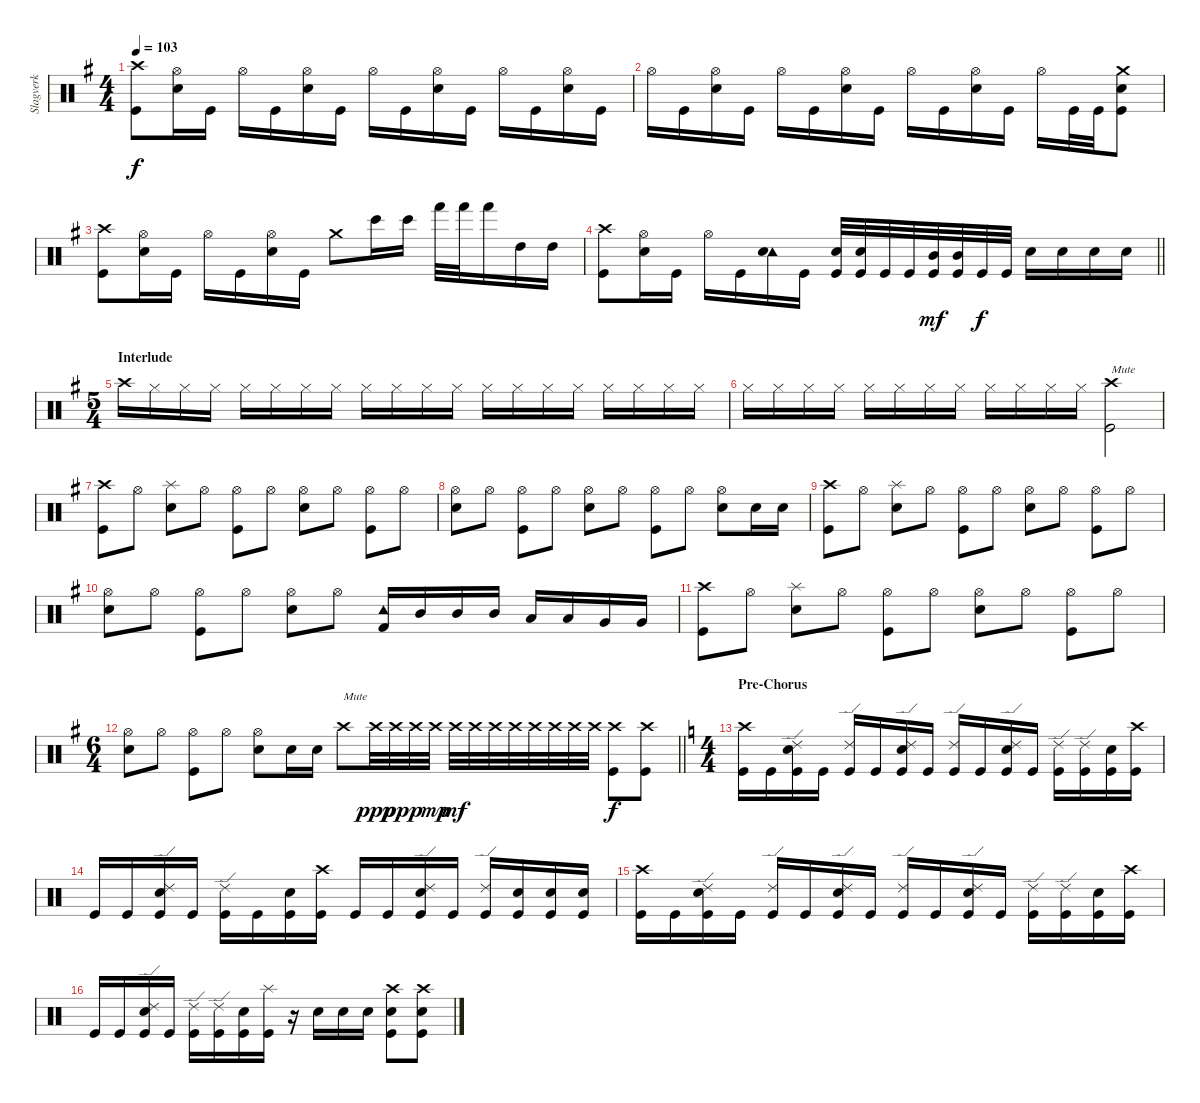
\track ("Slagverk" "Slagverk") {instrument percussion}
\staff {score}
\articulation defaults
\ts (4 4)
\tempo 103
\clef neutral
\ks g
("Crash high (hit)" "Kick (hit)").8{dy f} ("Hi-Hat (open)" "Electric Snare (hit)").16 "Kick (hit)".16 "Hi-Hat (open)".16 "Kick (hit)".16 ("Hi-Hat (open)" "Electric Snare (hit)").16 "Kick (hit)".16 "Hi-Hat (open)".16 "Kick (hit)".16 ("Hi-Hat (open)" "Electric Snare (hit)").16 "Kick (hit)".16 "Hi-Hat (open)".16 "Kick (hit)".16 ("Hi-Hat (open)" "Electric Snare (hit)").16 "Kick (hit)".16 |
"Hi-Hat (open)".16 "Kick (hit)".16 ("Hi-Hat (open)" "Electric Snare (hit)").16 "Kick (hit)".16 "Hi-Hat (open)".16 "Kick (hit)".16 ("Hi-Hat (open)" "Electric Snare (hit)").16 "Kick (hit)".16 "Hi-Hat (open)".16 "Kick (hit)".16 ("Hi-Hat (open)" "Electric Snare (hit)").16 "Kick (hit)".16 "Hi-Hat (open)".16 "Kick (hit)".32 "Kick (hit)".32 ("Crash medium (hit)" "Electric Snare (hit)" "Kick (hit)").8 |
("Crash high (hit)" "Kick (hit)").8 ("Hi-Hat (open)" "Electric Snare (hit)").16 "Kick (hit)".16 "Hi-Hat (open)".16 "Kick (hit)".16 ("Hi-Hat (open)" "Electric Snare (hit)").16 "Kick (hit)".16 "Crash medium (hit)".8 "Bongo High (hit)".16 "Bongo High (hit)".16 "Hand (hit)".32 "Hand (hit)".32 "Hand (hit)".16 "High Tom (hit)".16 "High Tom (hit)".16 |
\barLineRight lightlight
("Crash high (hit)" "Kick (hit)").8 ("Hi-Hat (open)" "Electric Snare (hit)").16 "Kick (hit)".16 "Hi-Hat (open)".16 "Kick (hit)".16 ("Tambourine (hit)" "Electric Snare (hit)").16 "Kick (hit)".16 ("Electric Snare (hit)" "Kick (hit)").32 ("Electric Snare (hit)" "Kick (hit)").32 "Kick (hit)".32 "Kick (hit)".32 ("Mid Tom (hit)" "Kick (hit)").32{dy mf} ("Mid Tom (hit)" "Kick (hit)").32 "Kick (hit)".32{dy f} "Kick (hit)".32 "Electric Snare (hit)".16 "Electric Snare (hit)".16 "Electric Snare (hit)".16 "Electric Snare (hit)".16 |
\ts (5 4)
\section ("" "Interlude")
"Crash high (hit)".16 "Hi-Hat (closed)".16 "Hi-Hat (closed)".16 "Hi-Hat (closed)".16 "Hi-Hat (closed)".16 "Hi-Hat (closed)".16 "Hi-Hat (closed)".16 "Hi-Hat (closed)".16 "Hi-Hat (closed)".16 "Hi-Hat (closed)".16 "Hi-Hat (closed)".16 "Hi-Hat (closed)".16 "Hi-Hat (closed)".16 "Hi-Hat (closed)".16 "Hi-Hat (closed)".16 "Hi-Hat (closed)".16 "Hi-Hat (closed)".16 "Hi-Hat (closed)".16 "Hi-Hat (closed)".16 "Hi-Hat (closed)".16 |
"Hi-Hat (closed)".16 "Hi-Hat (closed)".16 "Hi-Hat (closed)".16 "Hi-Hat (closed)".16 "Hi-Hat (closed)".16 "Hi-Hat (closed)".16 "Hi-Hat (closed)".16 "Hi-Hat (closed)".16 "Hi-Hat (closed)".16 "Hi-Hat (closed)".16 "Hi-Hat (closed)".16 "Hi-Hat (closed)".16 ("Crash high (hit)" "Kick (hit)").2{txt "Mute"} |
("Crash high (hit)" "Kick (hit)").8 "Hi-Hat (open)".8{beam split} ("Splash (hit)" "Electric Snare (hit)").8 "Hi-Hat (open)".8{beam split} ("Hi-Hat (open)" "Kick (hit)").8{beam merge} "Hi-Hat (open)".8{beam split} ("Hi-Hat (open)" "Electric Snare (hit)").8 "Hi-Hat (open)".8{beam split} ("Hi-Hat (open)" "Kick (hit)").8 "Hi-Hat (open)".8 |
("Hi-Hat (open)" "Electric Snare (hit)").8 "Hi-Hat (open)".8{beam split} ("Hi-Hat (open)" "Kick (hit)").8 "Hi-Hat (open)".8{beam split} ("Hi-Hat (open)" "Electric Snare (hit)").8 "Hi-Hat (open)".8{beam split} ("Hi-Hat (open)" "Kick (hit)").8 "Hi-Hat (open)".8 ("Hi-Hat (open)" "Electric Snare (hit)").8 "Electric Snare (hit)".16 "Electric Snare (hit)".16 |
("Crash high (hit)" "Kick (hit)").8 "Hi-Hat (open)".8{beam split} ("Splash (hit)" "Electric Snare (hit)").8 "Hi-Hat (open)".8{beam split} ("Hi-Hat (open)" "Kick (hit)").8 "Hi-Hat (open)".8{beam split} ("Hi-Hat (open)" "Electric Snare (hit)").8 "Hi-Hat (open)".8{beam split} ("Hi-Hat (open)" "Kick (hit)").8 "Hi-Hat (open)".8 |
("Hi-Hat (open)" "Electric Snare (hit)").8 "Hi-Hat (open)".8{beam split} ("Hi-Hat (open)" "Kick (hit)").8 "Hi-Hat (open)".8{beam split} ("Hi-Hat (open)" "Electric Snare (hit)").8 "Hi-Hat (open)".8 ("Tambourine (hit)" "Kick (hit) 2").16 "Mid Tom (hit)".16 "Mid Tom (hit)".16 "Mid Tom (hit)".16 "Low Tom (hit)".16 "Low Tom (hit)".16 "Very Low Tom (hit)".16 "Very Low Tom (hit)".16 |
("Crash high (hit)" "Kick (hit)").8 "Hi-Hat (open)".8{beam split} ("Splash (hit)" "Electric Snare (hit)").8{beam merge} "Hi-Hat (open)".8{beam split} ("Hi-Hat (open)" "Kick (hit)").8 "Hi-Hat (open)".8 ("Hi-Hat (open)" "Electric Snare (hit)").8 "Hi-Hat (open)".8{beam split} ("Hi-Hat (open)" "Kick (hit)").8 "Hi-Hat (open)".8 |
\ts (6 4)
\barLineRight lightlight
("Hi-Hat (open)" "Electric Snare (hit)").8 "Hi-Hat (open)".8{beam split} ("Hi-Hat (open)" "Kick (hit)").8 "Hi-Hat (open)".8{beam split} ("Hi-Hat (open)" "Electric Snare (hit)").8 "Electric Snare (hit)".16 "Electric Snare (hit)".16 "Crash high (hit)".8{txt "Mute" volume 5} "Crash high (hit)".32{dy ppp} "Crash high (hit)".32{dy pp} "Crash high (hit)".32{dy p} "Crash high (hit)".32{dy mp beam split} "Crash high (hit)".32{dy mf volume 12} "Crash high (hit)".32 "Crash high (hit)".32 "Crash high (hit)".32 "Crash high (hit)".32 "Crash high (hit)".32 "Crash high (hit)".32 "Crash high (hit)".32{beam split} ("Crash high (hit)" "Kick (hit)").8{dy f volume 14} ("Crash high (hit)" "Kick (hit)").8 |
\ts (4 4)
\section ("" "Pre-Chorus")
\ks c
("Crash high (hit)" "Kick (hit)").16{volume 15} "Kick (hit)".16 ("Ride (edge) 2" "Electric Snare (hit)" "Kick (hit)").16 "Kick (hit)".16 ("Ride (edge) 2" "Kick (hit)").16 "Kick (hit)".16 ("Ride (edge) 2" "Electric Snare (hit)" "Kick (hit)").16 "Kick (hit)".16 ("Ride (edge) 2" "Kick (hit)").16 "Kick (hit)".16 ("Ride (edge) 2" "Electric Snare (hit)" "Kick (hit)").16 "Kick (hit)".16 ("Ride (edge) 2" "Kick (hit)").16 ("Ride (edge) 2" "Kick (hit)").16 ("Electric Snare (hit)" "Kick (hit)").16 ("Crash high (hit)" "Kick (hit)").16 |
"Kick (hit)".16 "Kick (hit)".16 ("Ride (edge) 2" "Electric Snare (hit)" "Kick (hit)").16 "Kick (hit)".16 ("Ride (edge) 2" "Kick (hit)").16 "Kick (hit)".16 ("Electric Snare (hit)" "Kick (hit)").16 ("Crash high (hit)" "Kick (hit)").16 "Kick (hit)".16 "Kick (hit)".16 ("Ride (edge) 2" "Electric Snare (hit)" "Kick (hit)").16 "Kick (hit)".16 ("Ride (edge) 2" "Kick (hit)").16 ("Electric Snare (hit)" "Kick (hit)").16 ("Electric Snare (hit)" "Kick (hit)").16 ("Electric Snare (hit)" "Kick (hit)").16 |
("Crash high (hit)" "Kick (hit)").16 "Kick (hit)".16 ("Ride (edge) 2" "Electric Snare (hit)" "Kick (hit)").16 "Kick (hit)".16 ("Ride (edge) 2" "Kick (hit)").16 "Kick (hit)".16 ("Ride (edge) 2" "Electric Snare (hit)" "Kick (hit)").16 "Kick (hit)".16 ("Ride (edge) 2" "Kick (hit)").16 "Kick (hit)".16 ("Ride (edge) 2" "Electric Snare (hit)" "Kick (hit)").16 "Kick (hit)".16 ("Ride (edge) 2" "Kick (hit)").16 ("Ride (edge) 2" "Kick (hit)").16 ("Electric Snare (hit)" "Kick (hit)").16 ("Crash high (hit)" "Kick (hit)").16 |
"Kick (hit)".16 "Kick (hit)".16 ("Ride (edge) 2" "Electric Snare (hit)" "Kick (hit)").16 "Kick (hit)".16 ("Ride (edge) 2" "Kick (hit)").16 ("Ride (edge) 2" "Kick (hit)").16 ("Electric Snare (hit)" "Kick (hit)").16 ("Splash (hit)" "Kick (hit)").16 r.16 "Electric Snare (hit)".16 "Electric Snare (hit)".16 "Electric Snare (hit)".16 ("Crash high (hit)" "Electric Snare (hit)" "Kick (hit)").8 ("Crash high (hit)" "Electric Snare (hit)" "Kick (hit)").8
